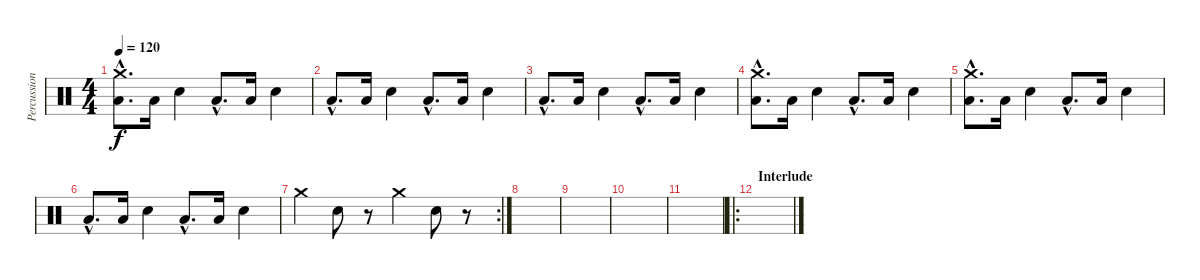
\track ("Percussion 1" "Percussion") {instrument percussion}
\staff {score}
\articulation defaults
\ts (4 4)
\tempo 120
\clef neutral
\ks c
("Crash medium (hit)"{hac} "Low Tom (hit)"{hac}).8{d dy f} "Low Tom (hit)".16 "Electric Snare (hit)".4 "Low Tom (hit)"{hac}.8{d} "Low Tom (hit)".16 "Electric Snare (hit)".4 |
"Low Tom (hit)"{hac}.8{d} "Low Tom (hit)".16 "Electric Snare (hit)".4 "Low Tom (hit)"{hac}.8{d} "Low Tom (hit)".16 "Electric Snare (hit)".4 |
"Low Tom (hit)"{hac}.8{d} "Low Tom (hit)".16 "Electric Snare (hit)".4 "Low Tom (hit)"{hac}.8{d} "Low Tom (hit)".16 "Electric Snare (hit)".4 |
("Crash medium (hit)"{hac} "Low Tom (hit)"{hac}).8{d} "Low Tom (hit)".16 "Electric Snare (hit)".4 "Low Tom (hit)"{hac}.8{d} "Low Tom (hit)".16 "Electric Snare (hit)".4 |
("Crash medium (hit)"{hac} "Low Tom (hit)"{hac}).8{d} "Low Tom (hit)".16 "Electric Snare (hit)".4 "Low Tom (hit)"{hac}.8{d} "Low Tom (hit)".16 "Electric Snare (hit)".4 |
"Low Tom (hit)"{hac}.8{d} "Low Tom (hit)".16 "Electric Snare (hit)".4 "Low Tom (hit)"{hac}.8{d} "Low Tom (hit)".16 "Electric Snare (hit)".4 |
\rc 2 "Crash medium (hit)".4 "Electric Snare (hit)".8
r.8 "Crash medium (hit)".4 "Electric Snare (hit)".8 r.8 |
|
|
|
|
\ro
\section ("" "Interlude")
